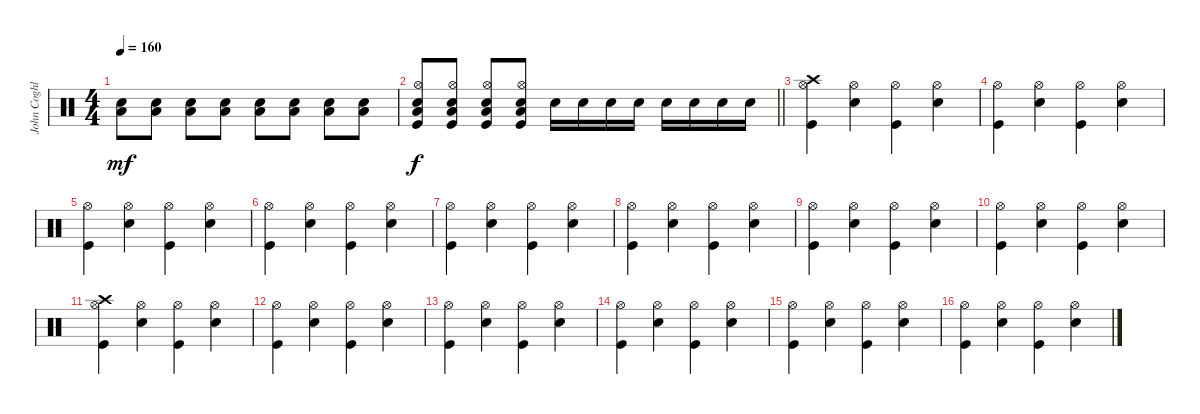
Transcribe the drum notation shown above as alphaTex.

\track ("John Coghlan" "John Coghl") {instrument percussion}
\staff {score}
\articulation defaults
\ts (4 4)
\tempo 160
\clef neutral
\ks c
("Low Floor Tom (hit)" "Electric Snare (hit)").8{dy mf} ("Low Floor Tom (hit)" "Electric Snare (hit)").8 ("Low Floor Tom (hit)" "Electric Snare (hit)").8 ("Low Floor Tom (hit)" "Electric Snare (hit)").8 ("Low Floor Tom (hit)" "Electric Snare (hit)").8 ("Low Floor Tom (hit)" "Electric Snare (hit)").8 ("Low Floor Tom (hit)" "Electric Snare (hit)").8 ("Low Floor Tom (hit)" "Electric Snare (hit)").8 |
\barLineRight lightlight
("Hi-Hat (open)" "Low Floor Tom (hit)" "Electric Snare (hit)" "Kick (hit)").8{dy f} ("Hi-Hat (open)" "Low Floor Tom (hit)" "Electric Snare (hit)" "Kick (hit)").8 ("Hi-Hat (open)" "Low Floor Tom (hit)" "Electric Snare (hit)" "Kick (hit)").8 ("Hi-Hat (open)" "Low Floor Tom (hit)" "Electric Snare (hit)" "Kick (hit)").8 "Electric Snare (hit)".16 "Electric Snare (hit)".16 "Electric Snare (hit)".16 "Electric Snare (hit)".16 "Electric Snare (hit)".16 "Electric Snare (hit)".16 "Electric Snare (hit)".16 "Electric Snare (hit)".16 |
("Crash high (hit)" "Hi-Hat (open)" "Kick (hit)").4 ("Hi-Hat (open)" "Electric Snare (hit)").4 ("Hi-Hat (open)" "Kick (hit)").4 ("Hi-Hat (open)" "Electric Snare (hit)").4 |
("Hi-Hat (open)" "Kick (hit)").4 ("Hi-Hat (open)" "Electric Snare (hit)").4 ("Hi-Hat (open)" "Kick (hit)").4 ("Hi-Hat (open)" "Electric Snare (hit)").4 |
("Hi-Hat (open)" "Kick (hit)").4 ("Hi-Hat (open)" "Electric Snare (hit)").4 ("Hi-Hat (open)" "Kick (hit)").4 ("Hi-Hat (open)" "Electric Snare (hit)").4 |
("Hi-Hat (open)" "Kick (hit)").4 ("Electric Snare (hit)" "Hi-Hat (open)").4 ("Hi-Hat (open)" "Kick (hit)").4 ("Electric Snare (hit)" "Hi-Hat (open)").4 |
("Hi-Hat (open)" "Kick (hit)").4 ("Electric Snare (hit)" "Hi-Hat (open)").4 ("Hi-Hat (open)" "Kick (hit)").4 ("Electric Snare (hit)" "Hi-Hat (open)").4 |
("Hi-Hat (open)" "Kick (hit)").4 ("Electric Snare (hit)" "Hi-Hat (open)").4 ("Hi-Hat (open)" "Kick (hit)").4 ("Electric Snare (hit)" "Hi-Hat (open)").4 |
("Hi-Hat (open)" "Kick (hit)").4 ("Electric Snare (hit)" "Hi-Hat (open)").4 ("Hi-Hat (open)" "Kick (hit)").4 ("Electric Snare (hit)" "Hi-Hat (open)").4 |
("Hi-Hat (open)" "Kick (hit)").4 ("Electric Snare (hit)" "Hi-Hat (open)").4 ("Hi-Hat (open)" "Kick (hit)").4 ("Electric Snare (hit)" "Hi-Hat (open)").4 |
("Crash high (hit)" "Hi-Hat (open)" "Kick (hit)").4 ("Electric Snare (hit)" "Hi-Hat (open)").4 ("Hi-Hat (open)" "Kick (hit)").4 ("Electric Snare (hit)" "Hi-Hat (open)").4 |
("Hi-Hat (open)" "Kick (hit)").4 ("Electric Snare (hit)" "Hi-Hat (open)").4 ("Hi-Hat (open)" "Kick (hit)").4 ("Electric Snare (hit)" "Hi-Hat (open)").4 |
("Hi-Hat (open)" "Kick (hit)").4 ("Electric Snare (hit)" "Hi-Hat (open)").4 ("Hi-Hat (open)" "Kick (hit)").4 ("Electric Snare (hit)" "Hi-Hat (open)").4 |
("Hi-Hat (open)" "Kick (hit)").4 ("Electric Snare (hit)" "Hi-Hat (open)").4 ("Hi-Hat (open)" "Kick (hit)").4 ("Electric Snare (hit)" "Hi-Hat (open)").4 |
("Hi-Hat (open)" "Kick (hit)").4 ("Electric Snare (hit)" "Hi-Hat (open)").4 ("Hi-Hat (open)" "Kick (hit)").4 ("Electric Snare (hit)" "Hi-Hat (open)").4 |
("Hi-Hat (open)" "Kick (hit)").4 ("Electric Snare (hit)" "Hi-Hat (open)").4 ("Hi-Hat (open)" "Kick (hit)").4 ("Electric Snare (hit)" "Hi-Hat (open)").4
